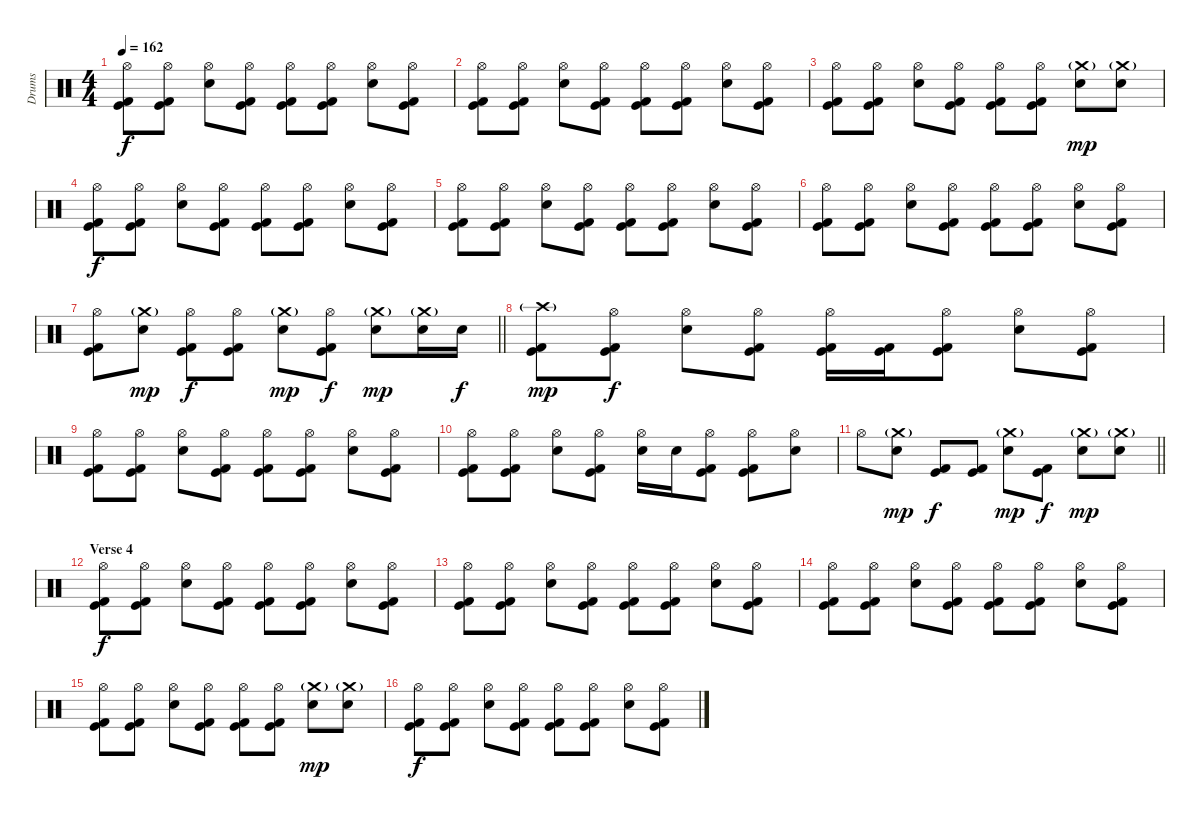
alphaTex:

\track ("Drums" "Drums") {instrument percussion}
\staff {score}
\articulation defaults
\ts (4 4)
\tempo 162
\clef neutral
\ks c
("Hi-Hat (open)" "Kick (hit)" "Kick (hit) 2").8{dy f} ("Hi-Hat (open)" "Kick (hit)" "Kick (hit) 2").8 ("Hi-Hat (open)" "Electric Snare (hit)").8 ("Hi-Hat (open)" "Kick (hit)" "Kick (hit) 2").8 ("Hi-Hat (open)" "Kick (hit)" "Kick (hit) 2").8 ("Hi-Hat (open)" "Kick (hit)" "Kick (hit) 2").8 ("Hi-Hat (open)" "Electric Snare (hit)").8 ("Hi-Hat (open)" "Kick (hit)" "Kick (hit) 2").8 |
("Hi-Hat (open)" "Kick (hit)" "Kick (hit) 2").8 ("Hi-Hat (open)" "Kick (hit)" "Kick (hit) 2").8 ("Hi-Hat (open)" "Electric Snare (hit)").8 ("Hi-Hat (open)" "Kick (hit)" "Kick (hit) 2").8 ("Hi-Hat (open)" "Kick (hit)" "Kick (hit) 2").8 ("Hi-Hat (open)" "Kick (hit)" "Kick (hit) 2").8 ("Hi-Hat (open)" "Electric Snare (hit)").8 ("Hi-Hat (open)" "Kick (hit)" "Kick (hit) 2").8 |
("Hi-Hat (open)" "Kick (hit)" "Kick (hit) 2").8 ("Hi-Hat (open)" "Kick (hit)" "Kick (hit) 2").8 ("Hi-Hat (open)" "Electric Snare (hit)").8 ("Hi-Hat (open)" "Kick (hit)" "Kick (hit) 2").8 ("Hi-Hat (open)" "Kick (hit)" "Kick (hit) 2").8 ("Hi-Hat (open)" "Kick (hit)" "Kick (hit) 2").8 ("Crash medium (hit)"{g} "Electric Snare (hit)").8{dy mp} ("Crash medium (hit)"{g} "Electric Snare (hit)").8 |
("Hi-Hat (open)" "Kick (hit)" "Kick (hit) 2").8{dy f} ("Hi-Hat (open)" "Kick (hit)" "Kick (hit) 2").8 ("Hi-Hat (open)" "Electric Snare (hit)").8 ("Hi-Hat (open)" "Kick (hit)" "Kick (hit) 2").8 ("Hi-Hat (open)" "Kick (hit)" "Kick (hit) 2").8 ("Hi-Hat (open)" "Kick (hit)" "Kick (hit) 2").8 ("Hi-Hat (open)" "Electric Snare (hit)").8 ("Hi-Hat (open)" "Kick (hit)" "Kick (hit) 2").8 |
("Hi-Hat (open)" "Kick (hit)" "Kick (hit) 2").8 ("Hi-Hat (open)" "Kick (hit)" "Kick (hit) 2").8 ("Hi-Hat (open)" "Electric Snare (hit)").8 ("Hi-Hat (open)" "Kick (hit)" "Kick (hit) 2").8 ("Hi-Hat (open)" "Kick (hit)" "Kick (hit) 2").8 ("Hi-Hat (open)" "Kick (hit)" "Kick (hit) 2").8 ("Hi-Hat (open)" "Electric Snare (hit)").8 ("Hi-Hat (open)" "Kick (hit)" "Kick (hit) 2").8 |
("Hi-Hat (open)" "Kick (hit)" "Kick (hit) 2").8 ("Hi-Hat (open)" "Kick (hit)" "Kick (hit) 2").8 ("Hi-Hat (open)" "Electric Snare (hit)").8 ("Hi-Hat (open)" "Kick (hit)" "Kick (hit) 2").8 ("Hi-Hat (open)" "Kick (hit)" "Kick (hit) 2").8 ("Hi-Hat (open)" "Kick (hit)" "Kick (hit) 2").8 ("Hi-Hat (open)" "Electric Snare (hit)").8 ("Hi-Hat (open)" "Kick (hit)" "Kick (hit) 2").8 |
\barLineRight lightlight
("Hi-Hat (open)" "Kick (hit)" "Kick (hit) 2").8 ("Crash medium (hit)"{g} "Electric Snare (hit)").8{dy mp} ("Hi-Hat (open)" "Kick (hit)" "Kick (hit) 2").8{dy f} ("Hi-Hat (open)" "Kick (hit)" "Kick (hit) 2").8 ("Crash medium (hit)"{g} "Electric Snare (hit)").8{dy mp} ("Hi-Hat (open)" "Kick (hit)" "Kick (hit) 2").8{dy f} ("Crash medium (hit)"{g} "Electric Snare (hit)").8{dy mp} ("Crash medium (hit)"{g} "Electric Snare (hit)").16 "Electric Snare (hit)".16{dy f} |
\section ("" "")
("Crash high (hit)"{g} "Kick (hit)" "Kick (hit) 2").8{dy mp} ("Hi-Hat (open)" "Kick (hit)" "Kick (hit) 2").8{dy f} ("Hi-Hat (open)" "Electric Snare (hit)").8 ("Hi-Hat (open)" "Kick (hit)" "Kick (hit) 2").8 ("Hi-Hat (open)" "Kick (hit)" "Kick (hit) 2").16 ("Kick (hit)" "Kick (hit) 2").16 ("Hi-Hat (open)" "Kick (hit)" "Kick (hit) 2").8 ("Hi-Hat (open)" "Electric Snare (hit)").8 ("Hi-Hat (open)" "Kick (hit)" "Kick (hit) 2").8 |
("Hi-Hat (open)" "Kick (hit)" "Kick (hit) 2").8 ("Hi-Hat (open)" "Kick (hit)" "Kick (hit) 2").8 ("Hi-Hat (open)" "Electric Snare (hit)").8 ("Hi-Hat (open)" "Kick (hit)" "Kick (hit) 2").8 ("Hi-Hat (open)" "Kick (hit)" "Kick (hit) 2").8 ("Hi-Hat (open)" "Kick (hit)" "Kick (hit) 2").8 ("Hi-Hat (open)" "Electric Snare (hit)").8 ("Hi-Hat (open)" "Kick (hit)" "Kick (hit) 2").8 |
("Hi-Hat (open)" "Kick (hit)" "Kick (hit) 2").8 ("Hi-Hat (open)" "Kick (hit)" "Kick (hit) 2").8 ("Hi-Hat (open)" "Electric Snare (hit)").8 ("Hi-Hat (open)" "Kick (hit)" "Kick (hit) 2").8 ("Hi-Hat (open)" "Electric Snare (hit)").16 "Electric Snare (hit)".16 ("Hi-Hat (open)" "Kick (hit)" "Kick (hit) 2").8 ("Hi-Hat (open)" "Kick (hit)" "Kick (hit) 2").8 ("Hi-Hat (open)" "Electric Snare (hit)").8 |
\barLineRight lightlight "Hi-Hat (open)".8
("Crash medium (hit)"{g} "Electric Snare (hit)").8{dy mp} ("Kick (hit)" "Kick (hit) 2").8{dy f} ("Kick (hit)" "Kick (hit) 2").8 ("Crash medium (hit)"{g} "Electric Snare (hit)").8{dy mp} ("Kick (hit)" "Kick (hit) 2").8{dy f} ("Crash medium (hit)"{g} "Electric Snare (hit)").8{dy mp} ("Crash medium (hit)"{g} "Electric Snare (hit)").8 |
\section ("" "Verse 4")
("Hi-Hat (open)" "Kick (hit)" "Kick (hit) 2").8{dy f} ("Hi-Hat (open)" "Kick (hit)" "Kick (hit) 2").8 ("Hi-Hat (open)" "Electric Snare (hit)").8 ("Hi-Hat (open)" "Kick (hit)" "Kick (hit) 2").8 ("Hi-Hat (open)" "Kick (hit)" "Kick (hit) 2").8 ("Hi-Hat (open)" "Kick (hit)" "Kick (hit) 2").8 ("Hi-Hat (open)" "Electric Snare (hit)").8 ("Hi-Hat (open)" "Kick (hit)" "Kick (hit) 2").8 |
("Hi-Hat (open)" "Kick (hit)" "Kick (hit) 2").8 ("Hi-Hat (open)" "Kick (hit)" "Kick (hit) 2").8 ("Hi-Hat (open)" "Electric Snare (hit)").8 ("Hi-Hat (open)" "Kick (hit)" "Kick (hit) 2").8 ("Hi-Hat (open)" "Kick (hit)" "Kick (hit) 2").8 ("Hi-Hat (open)" "Kick (hit)" "Kick (hit) 2").8 ("Hi-Hat (open)" "Electric Snare (hit)").8 ("Hi-Hat (open)" "Kick (hit)" "Kick (hit) 2").8 |
("Hi-Hat (open)" "Kick (hit)" "Kick (hit) 2").8 ("Hi-Hat (open)" "Kick (hit)" "Kick (hit) 2").8 ("Hi-Hat (open)" "Electric Snare (hit)").8 ("Hi-Hat (open)" "Kick (hit)" "Kick (hit) 2").8 ("Hi-Hat (open)" "Kick (hit)" "Kick (hit) 2").8 ("Hi-Hat (open)" "Kick (hit)" "Kick (hit) 2").8 ("Hi-Hat (open)" "Electric Snare (hit)").8 ("Hi-Hat (open)" "Kick (hit)" "Kick (hit) 2").8 |
("Hi-Hat (open)" "Kick (hit)" "Kick (hit) 2").8 ("Hi-Hat (open)" "Kick (hit)" "Kick (hit) 2").8 ("Hi-Hat (open)" "Electric Snare (hit)").8 ("Hi-Hat (open)" "Kick (hit)" "Kick (hit) 2").8 ("Hi-Hat (open)" "Kick (hit)" "Kick (hit) 2").8 ("Hi-Hat (open)" "Kick (hit)" "Kick (hit) 2").8 ("Crash medium (hit)"{g} "Electric Snare (hit)").8{dy mp} ("Crash medium (hit)"{g} "Electric Snare (hit)").8 |
("Hi-Hat (open)" "Kick (hit)" "Kick (hit) 2").8{dy f} ("Hi-Hat (open)" "Kick (hit)" "Kick (hit) 2").8 ("Hi-Hat (open)" "Electric Snare (hit)").8 ("Hi-Hat (open)" "Kick (hit)" "Kick (hit) 2").8 ("Hi-Hat (open)" "Kick (hit)" "Kick (hit) 2").8 ("Hi-Hat (open)" "Kick (hit)" "Kick (hit) 2").8 ("Hi-Hat (open)" "Electric Snare (hit)").8 ("Hi-Hat (open)" "Kick (hit)" "Kick (hit) 2").8
